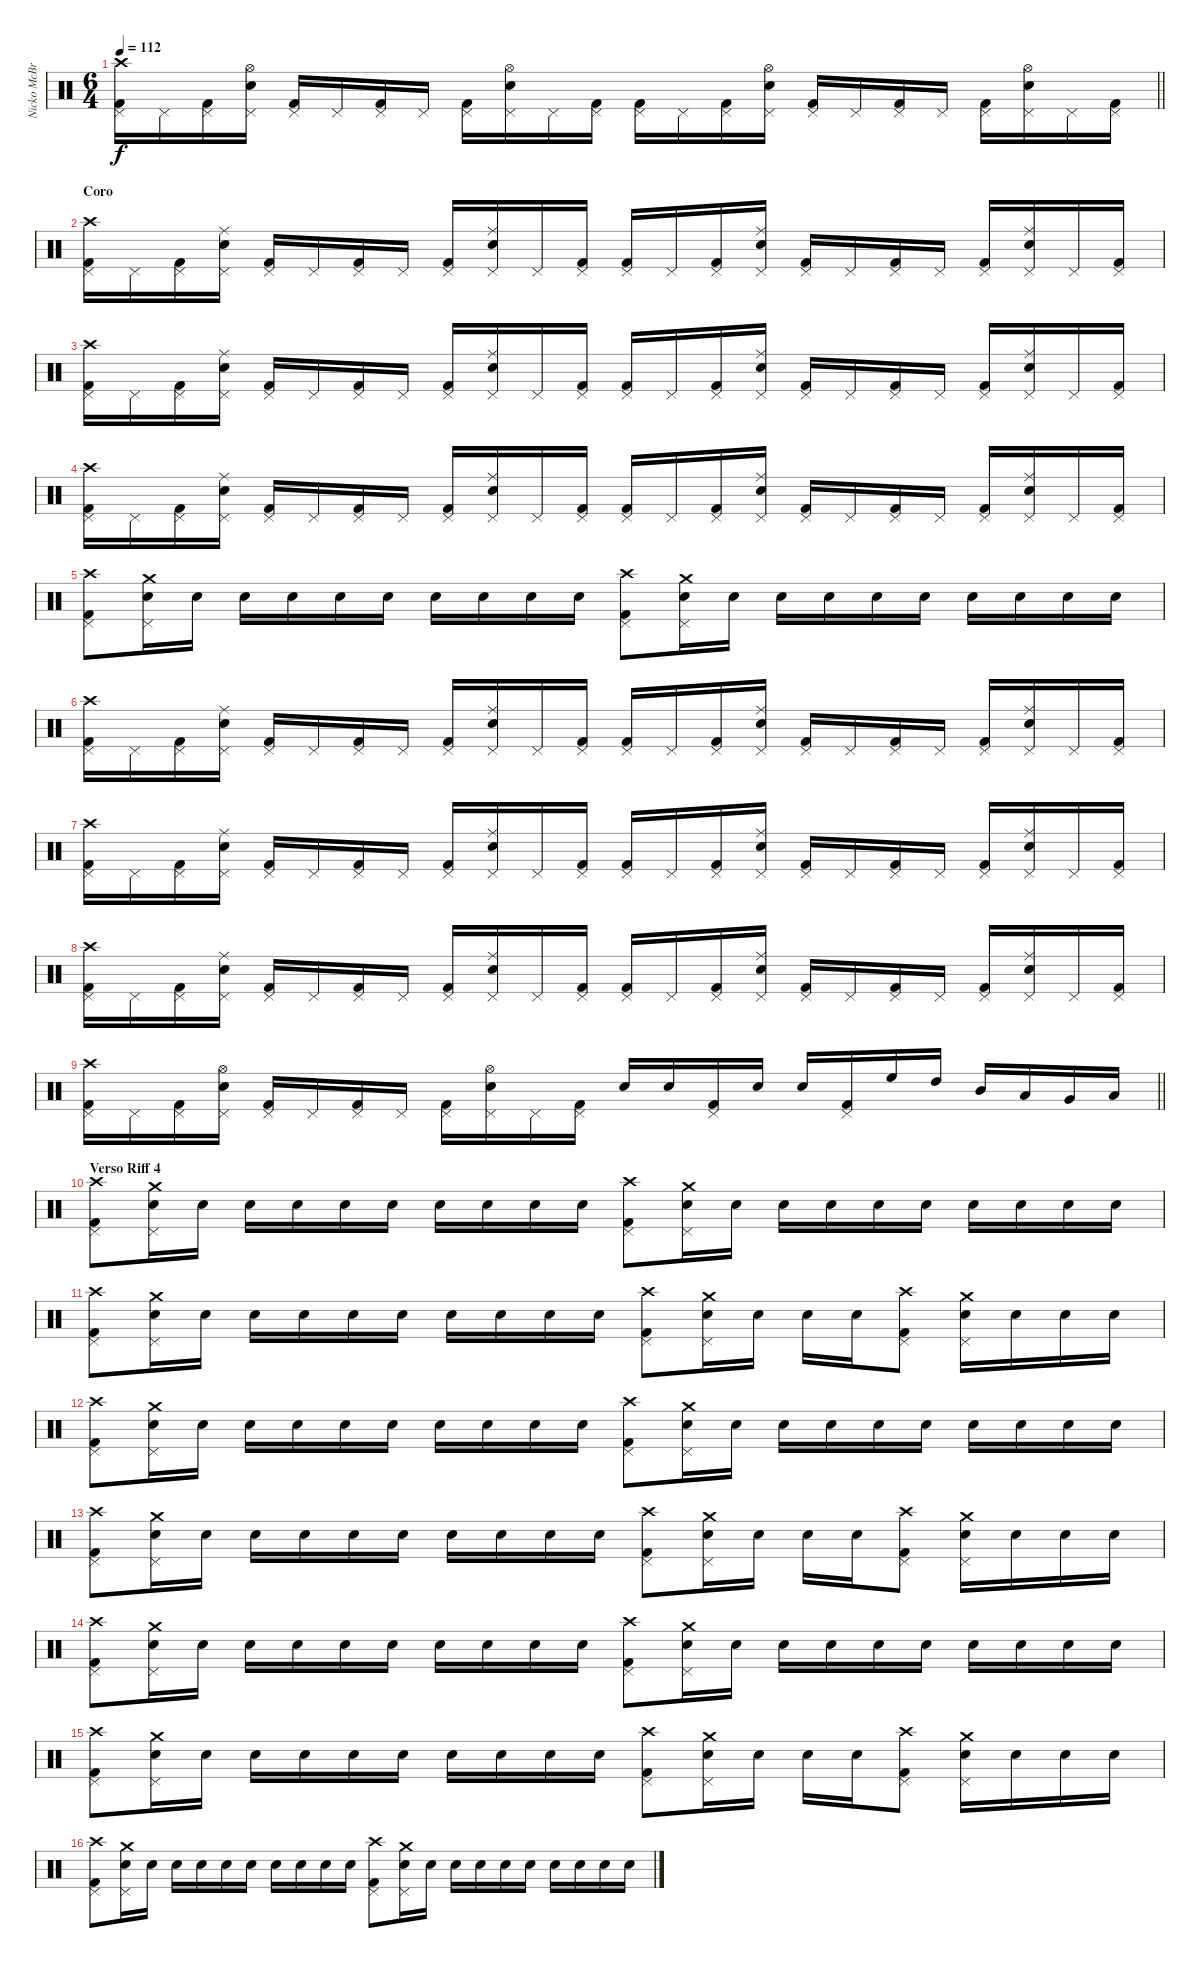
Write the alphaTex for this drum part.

\track ("Nicko McBrain" "Nicko McBr") {instrument percussion}
\staff {score}
\articulation defaults
\ts (6 4)
\tempo 112
\clef neutral
\barLineRight lightlight
\ks c
("Kick (hit) 2" "Pedal Hi-Hat (hit)" "Crash high (hit)").16{dy f} "Pedal Hi-Hat (hit)".16 ("Kick (hit) 2" "Pedal Hi-Hat (hit)").16 ("Snare (hit) 2" "Pedal Hi-Hat (hit)" "Hi-Hat (open)").16 ("Kick (hit) 2" "Pedal Hi-Hat (hit)").16 "Pedal Hi-Hat (hit)".16 ("Kick (hit) 2" "Pedal Hi-Hat (hit)").16 "Pedal Hi-Hat (hit)".16 ("Kick (hit) 2" "Pedal Hi-Hat (hit)").16 ("Snare (hit) 2" "Pedal Hi-Hat (hit)" "Hi-Hat (open)").16 "Pedal Hi-Hat (hit)".16 ("Kick (hit) 2" "Pedal Hi-Hat (hit)").16 ("Kick (hit) 2" "Pedal Hi-Hat (hit)").16 "Pedal Hi-Hat (hit)".16 ("Kick (hit) 2" "Pedal Hi-Hat (hit)").16 ("Snare (hit) 2" "Pedal Hi-Hat (hit)" "Hi-Hat (open)").16 ("Kick (hit) 2" "Pedal Hi-Hat (hit)").16 "Pedal Hi-Hat (hit)".16 ("Kick (hit) 2" "Pedal Hi-Hat (hit)").16 "Pedal Hi-Hat (hit)".16 ("Kick (hit) 2" "Pedal Hi-Hat (hit)").16 ("Snare (hit) 2" "Pedal Hi-Hat (hit)" "Hi-Hat (open)").16 "Pedal Hi-Hat (hit)".16 ("Kick (hit) 2" "Pedal Hi-Hat (hit)").16 |
\section ("" "Coro")
("Kick (hit) 2" "Pedal Hi-Hat (hit)" "Crash high (hit)").16 "Pedal Hi-Hat (hit)".16 ("Kick (hit) 2" "Pedal Hi-Hat (hit)").16 ("Snare (hit) 2" "Pedal Hi-Hat (hit)" "Ride (middle)").16 ("Kick (hit) 2" "Pedal Hi-Hat (hit)").16 "Pedal Hi-Hat (hit)".16 ("Kick (hit) 2" "Pedal Hi-Hat (hit)").16 "Pedal Hi-Hat (hit)".16 ("Kick (hit) 2" "Pedal Hi-Hat (hit)").16 ("Snare (hit) 2" "Pedal Hi-Hat (hit)" "Ride (middle)").16 "Pedal Hi-Hat (hit)".16 ("Kick (hit) 2" "Pedal Hi-Hat (hit)").16 ("Kick (hit) 2" "Pedal Hi-Hat (hit)").16 "Pedal Hi-Hat (hit)".16 ("Kick (hit) 2" "Pedal Hi-Hat (hit)").16 ("Snare (hit) 2" "Pedal Hi-Hat (hit)" "Ride (middle)").16 ("Kick (hit) 2" "Pedal Hi-Hat (hit)").16 "Pedal Hi-Hat (hit)".16 ("Kick (hit) 2" "Pedal Hi-Hat (hit)").16 "Pedal Hi-Hat (hit)".16 ("Kick (hit) 2" "Pedal Hi-Hat (hit)").16 ("Snare (hit) 2" "Pedal Hi-Hat (hit)" "Ride (middle)").16 "Pedal Hi-Hat (hit)".16 ("Kick (hit) 2" "Pedal Hi-Hat (hit)").16 |
("Kick (hit) 2" "Pedal Hi-Hat (hit)" "Crash high (hit)").16 "Pedal Hi-Hat (hit)".16 ("Kick (hit) 2" "Pedal Hi-Hat (hit)").16 ("Snare (hit) 2" "Pedal Hi-Hat (hit)" "Ride (middle)").16 ("Kick (hit) 2" "Pedal Hi-Hat (hit)").16 "Pedal Hi-Hat (hit)".16 ("Kick (hit) 2" "Pedal Hi-Hat (hit)").16 "Pedal Hi-Hat (hit)".16 ("Kick (hit) 2" "Pedal Hi-Hat (hit)").16 ("Snare (hit) 2" "Pedal Hi-Hat (hit)" "Ride (middle)").16 "Pedal Hi-Hat (hit)".16 ("Kick (hit) 2" "Pedal Hi-Hat (hit)").16 ("Kick (hit) 2" "Pedal Hi-Hat (hit)").16 "Pedal Hi-Hat (hit)".16 ("Kick (hit) 2" "Pedal Hi-Hat (hit)").16 ("Snare (hit) 2" "Pedal Hi-Hat (hit)" "Ride (middle)").16 ("Kick (hit) 2" "Pedal Hi-Hat (hit)").16 "Pedal Hi-Hat (hit)".16 ("Kick (hit) 2" "Pedal Hi-Hat (hit)").16 "Pedal Hi-Hat (hit)".16 ("Kick (hit) 2" "Pedal Hi-Hat (hit)").16 ("Snare (hit) 2" "Pedal Hi-Hat (hit)" "Ride (middle)").16 "Pedal Hi-Hat (hit)".16 ("Kick (hit) 2" "Pedal Hi-Hat (hit)").16 |
("Kick (hit) 2" "Pedal Hi-Hat (hit)" "Crash high (hit)").16 "Pedal Hi-Hat (hit)".16 ("Kick (hit) 2" "Pedal Hi-Hat (hit)").16 ("Snare (hit) 2" "Pedal Hi-Hat (hit)" "Ride (middle)").16 ("Kick (hit) 2" "Pedal Hi-Hat (hit)").16 "Pedal Hi-Hat (hit)".16 ("Kick (hit) 2" "Pedal Hi-Hat (hit)").16 "Pedal Hi-Hat (hit)".16 ("Kick (hit) 2" "Pedal Hi-Hat (hit)").16 ("Snare (hit) 2" "Pedal Hi-Hat (hit)" "Ride (middle)").16 "Pedal Hi-Hat (hit)".16 ("Kick (hit) 2" "Pedal Hi-Hat (hit)").16 ("Kick (hit) 2" "Pedal Hi-Hat (hit)").16 "Pedal Hi-Hat (hit)".16 ("Kick (hit) 2" "Pedal Hi-Hat (hit)").16 ("Snare (hit) 2" "Pedal Hi-Hat (hit)" "Ride (middle)").16 ("Kick (hit) 2" "Pedal Hi-Hat (hit)").16 "Pedal Hi-Hat (hit)".16 ("Kick (hit) 2" "Pedal Hi-Hat (hit)").16 "Pedal Hi-Hat (hit)".16 ("Kick (hit) 2" "Pedal Hi-Hat (hit)").16 ("Snare (hit) 2" "Pedal Hi-Hat (hit)" "Ride (middle)").16 "Pedal Hi-Hat (hit)".16 ("Kick (hit) 2" "Pedal Hi-Hat (hit)").16 |
("Kick (hit) 2" "Pedal Hi-Hat (hit)" "Crash high (hit)").8 ("Snare (hit) 2" "Pedal Hi-Hat (hit)" "Crash medium (hit)").16 "Snare (hit) 2".16 "Snare (hit) 2".16 "Snare (hit) 2".16 "Snare (hit) 2".16 "Snare (hit) 2".16 "Snare (hit) 2".16 "Snare (hit) 2".16 "Snare (hit) 2".16 "Snare (hit) 2".16 ("Kick (hit) 2" "Pedal Hi-Hat (hit)" "Crash high (hit)").8 ("Snare (hit) 2" "Pedal Hi-Hat (hit)" "Crash medium (hit)").16 "Snare (hit) 2".16 "Snare (hit) 2".16 "Snare (hit) 2".16 "Snare (hit) 2".16 "Snare (hit) 2".16 "Snare (hit) 2".16 "Snare (hit) 2".16 "Snare (hit) 2".16 "Snare (hit) 2".16 |
("Kick (hit) 2" "Pedal Hi-Hat (hit)" "Crash high (hit)").16 "Pedal Hi-Hat (hit)".16 ("Kick (hit) 2" "Pedal Hi-Hat (hit)").16 ("Snare (hit) 2" "Pedal Hi-Hat (hit)" "Ride (middle)").16 ("Kick (hit) 2" "Pedal Hi-Hat (hit)").16 "Pedal Hi-Hat (hit)".16 ("Kick (hit) 2" "Pedal Hi-Hat (hit)").16 "Pedal Hi-Hat (hit)".16 ("Kick (hit) 2" "Pedal Hi-Hat (hit)").16 ("Snare (hit) 2" "Pedal Hi-Hat (hit)" "Ride (middle)").16 "Pedal Hi-Hat (hit)".16 ("Kick (hit) 2" "Pedal Hi-Hat (hit)").16 ("Kick (hit) 2" "Pedal Hi-Hat (hit)").16 "Pedal Hi-Hat (hit)".16 ("Kick (hit) 2" "Pedal Hi-Hat (hit)").16 ("Snare (hit) 2" "Pedal Hi-Hat (hit)" "Ride (middle)").16 ("Kick (hit) 2" "Pedal Hi-Hat (hit)").16 "Pedal Hi-Hat (hit)".16 ("Kick (hit) 2" "Pedal Hi-Hat (hit)").16 "Pedal Hi-Hat (hit)".16 ("Kick (hit) 2" "Pedal Hi-Hat (hit)").16 ("Snare (hit) 2" "Pedal Hi-Hat (hit)" "Ride (middle)").16 "Pedal Hi-Hat (hit)".16 ("Kick (hit) 2" "Pedal Hi-Hat (hit)").16 |
("Kick (hit) 2" "Pedal Hi-Hat (hit)" "Crash high (hit)").16 "Pedal Hi-Hat (hit)".16 ("Kick (hit) 2" "Pedal Hi-Hat (hit)").16 ("Snare (hit) 2" "Pedal Hi-Hat (hit)" "Ride (middle)").16 ("Kick (hit) 2" "Pedal Hi-Hat (hit)").16 "Pedal Hi-Hat (hit)".16 ("Kick (hit) 2" "Pedal Hi-Hat (hit)").16 "Pedal Hi-Hat (hit)".16 ("Kick (hit) 2" "Pedal Hi-Hat (hit)").16 ("Snare (hit) 2" "Pedal Hi-Hat (hit)" "Ride (middle)").16 "Pedal Hi-Hat (hit)".16 ("Kick (hit) 2" "Pedal Hi-Hat (hit)").16 ("Kick (hit) 2" "Pedal Hi-Hat (hit)").16 "Pedal Hi-Hat (hit)".16 ("Kick (hit) 2" "Pedal Hi-Hat (hit)").16 ("Snare (hit) 2" "Pedal Hi-Hat (hit)" "Ride (middle)").16 ("Kick (hit) 2" "Pedal Hi-Hat (hit)").16 "Pedal Hi-Hat (hit)".16 ("Kick (hit) 2" "Pedal Hi-Hat (hit)").16 "Pedal Hi-Hat (hit)".16 ("Kick (hit) 2" "Pedal Hi-Hat (hit)").16 ("Snare (hit) 2" "Pedal Hi-Hat (hit)" "Ride (middle)").16 "Pedal Hi-Hat (hit)".16 ("Kick (hit) 2" "Pedal Hi-Hat (hit)").16 |
("Kick (hit) 2" "Pedal Hi-Hat (hit)" "Crash high (hit)").16 "Pedal Hi-Hat (hit)".16 ("Kick (hit) 2" "Pedal Hi-Hat (hit)").16 ("Snare (hit) 2" "Pedal Hi-Hat (hit)" "Ride (middle)").16 ("Kick (hit) 2" "Pedal Hi-Hat (hit)").16 "Pedal Hi-Hat (hit)".16 ("Kick (hit) 2" "Pedal Hi-Hat (hit)").16 "Pedal Hi-Hat (hit)".16 ("Kick (hit) 2" "Pedal Hi-Hat (hit)").16 ("Snare (hit) 2" "Pedal Hi-Hat (hit)" "Ride (middle)").16 "Pedal Hi-Hat (hit)".16 ("Kick (hit) 2" "Pedal Hi-Hat (hit)").16 ("Kick (hit) 2" "Pedal Hi-Hat (hit)").16 "Pedal Hi-Hat (hit)".16 ("Kick (hit) 2" "Pedal Hi-Hat (hit)").16 ("Snare (hit) 2" "Pedal Hi-Hat (hit)" "Ride (middle)").16 ("Kick (hit) 2" "Pedal Hi-Hat (hit)").16 "Pedal Hi-Hat (hit)".16 ("Kick (hit) 2" "Pedal Hi-Hat (hit)").16 "Pedal Hi-Hat (hit)".16 ("Kick (hit) 2" "Pedal Hi-Hat (hit)").16 ("Snare (hit) 2" "Pedal Hi-Hat (hit)" "Ride (middle)").16 "Pedal Hi-Hat (hit)".16 ("Kick (hit) 2" "Pedal Hi-Hat (hit)").16 |
\barLineRight lightlight
("Kick (hit) 2" "Pedal Hi-Hat (hit)" "Crash high (hit)").16 "Pedal Hi-Hat (hit)".16 ("Kick (hit) 2" "Pedal Hi-Hat (hit)").16 ("Snare (hit) 2" "Pedal Hi-Hat (hit)" "Hi-Hat (open)").16 ("Kick (hit) 2" "Pedal Hi-Hat (hit)").16 "Pedal Hi-Hat (hit)".16 ("Kick (hit) 2" "Pedal Hi-Hat (hit)").16 "Pedal Hi-Hat (hit)".16 ("Kick (hit) 2" "Pedal Hi-Hat (hit)").16 ("Snare (hit) 2" "Pedal Hi-Hat (hit)" "Hi-Hat (open)").16 "Pedal Hi-Hat (hit)".16 ("Kick (hit) 2" "Pedal Hi-Hat (hit)").16 "Snare (hit) 2".16 "Snare (hit) 2".16 ("Kick (hit) 2" "Pedal Hi-Hat (hit)").16 "Snare (hit) 2".16 "Snare (hit) 2".16 ("Kick (hit) 2" "Pedal Hi-Hat (hit)").16 "High Floor Tom (hit)".16 "High Tom (hit)".16 "Mid Tom (hit)".16 "Low Tom (hit)".16 "Very Low Tom (hit)".16 "Low Floor Tom (hit)".16 |
\section ("" "Verso Riff 4")
("Kick (hit) 2" "Pedal Hi-Hat (hit)" "Crash high (hit)").8 ("Snare (hit) 2" "Pedal Hi-Hat (hit)" "Crash medium (hit)").16 "Snare (hit) 2".16 "Snare (hit) 2".16 "Snare (hit) 2".16 "Snare (hit) 2".16 "Snare (hit) 2".16 "Snare (hit) 2".16 "Snare (hit) 2".16 "Snare (hit) 2".16 "Snare (hit) 2".16 ("Kick (hit) 2" "Pedal Hi-Hat (hit)" "Crash high (hit)").8 ("Snare (hit) 2" "Pedal Hi-Hat (hit)" "Crash medium (hit)").16 "Snare (hit) 2".16 "Snare (hit) 2".16 "Snare (hit) 2".16 "Snare (hit) 2".16 "Snare (hit) 2".16 "Snare (hit) 2".16 "Snare (hit) 2".16 "Snare (hit) 2".16 "Snare (hit) 2".16 |
("Kick (hit) 2" "Pedal Hi-Hat (hit)" "Crash high (hit)").8 ("Snare (hit) 2" "Pedal Hi-Hat (hit)" "Crash medium (hit)").16 "Snare (hit) 2".16 "Snare (hit) 2".16 "Snare (hit) 2".16 "Snare (hit) 2".16 "Snare (hit) 2".16 "Snare (hit) 2".16 "Snare (hit) 2".16 "Snare (hit) 2".16 "Snare (hit) 2".16 ("Kick (hit) 2" "Pedal Hi-Hat (hit)" "Crash high (hit)").8 ("Snare (hit) 2" "Pedal Hi-Hat (hit)" "Crash medium (hit)").16 "Snare (hit) 2".16 "Snare (hit) 2".16 "Snare (hit) 2".16 ("Kick (hit) 2" "Pedal Hi-Hat (hit)" "Crash high (hit)").8 ("Snare (hit) 2" "Pedal Hi-Hat (hit)" "Crash medium (hit)").16 "Snare (hit) 2".16 "Snare (hit) 2".16 "Snare (hit) 2".16 |
("Kick (hit) 2" "Pedal Hi-Hat (hit)" "Crash high (hit)").8 ("Snare (hit) 2" "Pedal Hi-Hat (hit)" "Crash medium (hit)").16 "Snare (hit) 2".16 "Snare (hit) 2".16 "Snare (hit) 2".16 "Snare (hit) 2".16 "Snare (hit) 2".16 "Snare (hit) 2".16 "Snare (hit) 2".16 "Snare (hit) 2".16 "Snare (hit) 2".16 ("Kick (hit) 2" "Pedal Hi-Hat (hit)" "Crash high (hit)").8 ("Snare (hit) 2" "Pedal Hi-Hat (hit)" "Crash medium (hit)").16 "Snare (hit) 2".16 "Snare (hit) 2".16 "Snare (hit) 2".16 "Snare (hit) 2".16 "Snare (hit) 2".16 "Snare (hit) 2".16 "Snare (hit) 2".16 "Snare (hit) 2".16 "Snare (hit) 2".16 |
("Kick (hit) 2" "Pedal Hi-Hat (hit)" "Crash high (hit)").8 ("Snare (hit) 2" "Pedal Hi-Hat (hit)" "Crash medium (hit)").16 "Snare (hit) 2".16 "Snare (hit) 2".16 "Snare (hit) 2".16 "Snare (hit) 2".16 "Snare (hit) 2".16 "Snare (hit) 2".16 "Snare (hit) 2".16 "Snare (hit) 2".16 "Snare (hit) 2".16 ("Kick (hit) 2" "Pedal Hi-Hat (hit)" "Crash high (hit)").8 ("Snare (hit) 2" "Pedal Hi-Hat (hit)" "Crash medium (hit)").16 "Snare (hit) 2".16 "Snare (hit) 2".16 "Snare (hit) 2".16 ("Kick (hit) 2" "Pedal Hi-Hat (hit)" "Crash high (hit)").8 ("Snare (hit) 2" "Pedal Hi-Hat (hit)" "Crash medium (hit)").16 "Snare (hit) 2".16 "Snare (hit) 2".16 "Snare (hit) 2".16 |
("Kick (hit) 2" "Pedal Hi-Hat (hit)" "Crash high (hit)").8 ("Snare (hit) 2" "Pedal Hi-Hat (hit)" "Crash medium (hit)").16 "Snare (hit) 2".16 "Snare (hit) 2".16 "Snare (hit) 2".16 "Snare (hit) 2".16 "Snare (hit) 2".16 "Snare (hit) 2".16 "Snare (hit) 2".16 "Snare (hit) 2".16 "Snare (hit) 2".16 ("Kick (hit) 2" "Pedal Hi-Hat (hit)" "Crash high (hit)").8 ("Snare (hit) 2" "Pedal Hi-Hat (hit)" "Crash medium (hit)").16 "Snare (hit) 2".16 "Snare (hit) 2".16 "Snare (hit) 2".16 "Snare (hit) 2".16 "Snare (hit) 2".16 "Snare (hit) 2".16 "Snare (hit) 2".16 "Snare (hit) 2".16 "Snare (hit) 2".16 |
("Kick (hit) 2" "Pedal Hi-Hat (hit)" "Crash high (hit)").8 ("Snare (hit) 2" "Pedal Hi-Hat (hit)" "Crash medium (hit)").16 "Snare (hit) 2".16 "Snare (hit) 2".16 "Snare (hit) 2".16 "Snare (hit) 2".16 "Snare (hit) 2".16 "Snare (hit) 2".16 "Snare (hit) 2".16 "Snare (hit) 2".16 "Snare (hit) 2".16 ("Kick (hit) 2" "Pedal Hi-Hat (hit)" "Crash high (hit)").8 ("Snare (hit) 2" "Pedal Hi-Hat (hit)" "Crash medium (hit)").16 "Snare (hit) 2".16 "Snare (hit) 2".16 "Snare (hit) 2".16 ("Kick (hit) 2" "Pedal Hi-Hat (hit)" "Crash high (hit)").8 ("Snare (hit) 2" "Pedal Hi-Hat (hit)" "Crash medium (hit)").16 "Snare (hit) 2".16 "Snare (hit) 2".16 "Snare (hit) 2".16 |
("Kick (hit) 2" "Pedal Hi-Hat (hit)" "Crash high (hit)").8 ("Snare (hit) 2" "Pedal Hi-Hat (hit)" "Crash medium (hit)").16 "Snare (hit) 2".16 "Snare (hit) 2".16 "Snare (hit) 2".16 "Snare (hit) 2".16 "Snare (hit) 2".16 "Snare (hit) 2".16 "Snare (hit) 2".16 "Snare (hit) 2".16 "Snare (hit) 2".16 ("Kick (hit) 2" "Pedal Hi-Hat (hit)" "Crash high (hit)").8 ("Snare (hit) 2" "Pedal Hi-Hat (hit)" "Crash medium (hit)").16 "Snare (hit) 2".16 "Snare (hit) 2".16 "Snare (hit) 2".16 "Snare (hit) 2".16 "Snare (hit) 2".16 "Snare (hit) 2".16 "Snare (hit) 2".16 "Snare (hit) 2".16 "Snare (hit) 2".16
